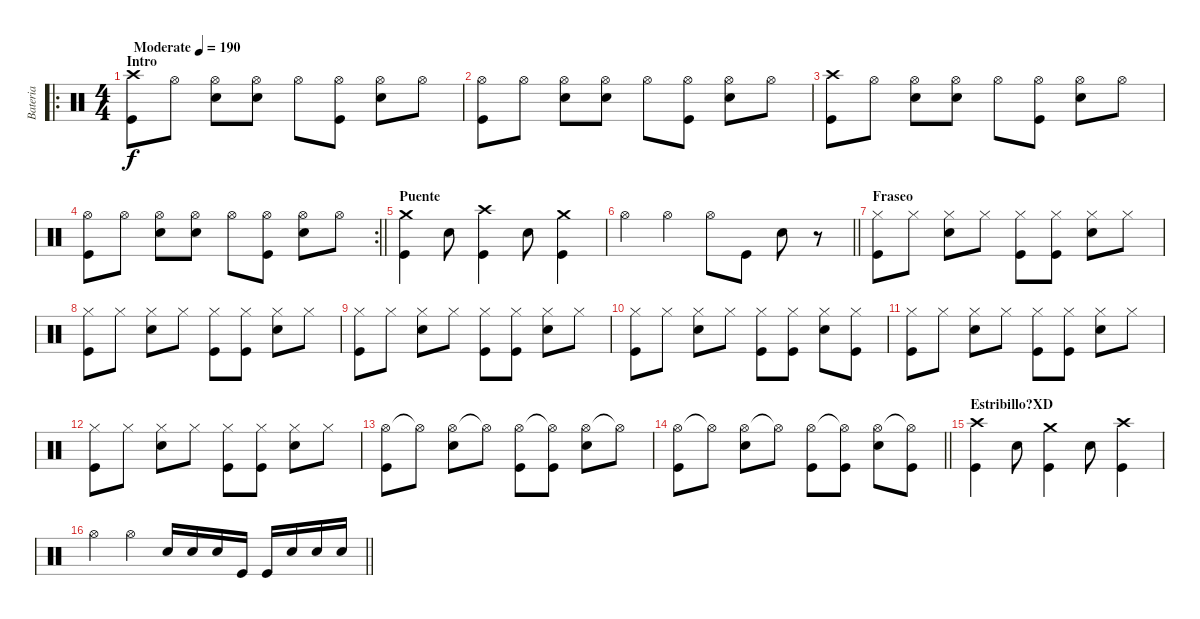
\track ("Bateria" "Bateria") {instrument percussion}
\staff {score}
\articulation defaults
\ro
\ts (4 4)
\section ("" "Intro")
\tempo (190 "Moderate")
\clef neutral
\ks c
("Crash high (hit)" "Kick (hit)").8{dy f} "Hi-Hat (open)".8 ("Hi-Hat (open)" "Snare (hit) 2").8 ("Hi-Hat (open)" "Snare (hit) 2").8 "Hi-Hat (open)".8 ("Hi-Hat (open)" "Kick (hit)").8 ("Hi-Hat (open)" "Snare (hit) 2").8 "Hi-Hat (open)".8 |
("Hi-Hat (open)" "Kick (hit)").8 "Hi-Hat (open)".8 ("Hi-Hat (open)" "Snare (hit) 2").8 ("Hi-Hat (open)" "Snare (hit) 2").8 "Hi-Hat (open)".8 ("Hi-Hat (open)" "Kick (hit)").8 ("Hi-Hat (open)" "Snare (hit) 2").8 "Hi-Hat (open)".8 |
("Crash high (hit)" "Kick (hit)").8 "Hi-Hat (open)".8 ("Hi-Hat (open)" "Snare (hit) 2").8 ("Hi-Hat (open)" "Snare (hit) 2").8 "Hi-Hat (open)".8 ("Hi-Hat (open)" "Kick (hit)").8 ("Hi-Hat (open)" "Snare (hit) 2").8 "Hi-Hat (open)".8 |
\rc 2
\barLineRight lightlight
("Hi-Hat (open)" "Kick (hit)").8 "Hi-Hat (open)".8 ("Hi-Hat (open)" "Snare (hit) 2").8 ("Hi-Hat (open)" "Snare (hit) 2").8 "Hi-Hat (open)".8 ("Hi-Hat (open)" "Kick (hit)").8 ("Hi-Hat (open)" "Snare (hit) 2").8 "Hi-Hat (open)".8 |
\section ("" "Puente")
("Crash medium (hit)" "Kick (hit)").4 "Snare (hit) 2".8 ("Crash high (hit)" "Kick (hit)").4 "Snare (hit) 2".8 ("Crash medium (hit)" "Kick (hit)").4 |
\barLineRight lightlight "Hi-Hat (open)".4 "Hi-Hat (open)".4 "Hi-Hat (open)".8 "Kick (hit)".8 "Snare (hit) 2".8
r.8 |
\section ("" "Fraseo")
("Hi-Hat (closed)" "Kick (hit)").8 "Hi-Hat (closed)".8 ("Hi-Hat (closed)" "Snare (hit) 2").8 "Hi-Hat (closed)".8 ("Hi-Hat (closed)" "Kick (hit)").8 ("Hi-Hat (closed)" "Kick (hit)").8 ("Hi-Hat (closed)" "Snare (hit) 2").8 "Hi-Hat (closed)".8 |
("Hi-Hat (closed)" "Kick (hit)").8 "Hi-Hat (closed)".8 ("Hi-Hat (closed)" "Snare (hit) 2").8 "Hi-Hat (closed)".8 ("Hi-Hat (closed)" "Kick (hit)").8 ("Hi-Hat (closed)" "Kick (hit)").8 ("Hi-Hat (closed)" "Snare (hit) 2").8 "Hi-Hat (closed)".8 |
("Hi-Hat (closed)" "Kick (hit)").8 "Hi-Hat (closed)".8 ("Hi-Hat (closed)" "Snare (hit) 2").8 "Hi-Hat (closed)".8 ("Hi-Hat (closed)" "Kick (hit)").8 ("Hi-Hat (closed)" "Kick (hit)").8 ("Hi-Hat (closed)" "Snare (hit) 2").8 "Hi-Hat (closed)".8 |
("Hi-Hat (closed)" "Kick (hit)").8 "Hi-Hat (closed)".8 ("Hi-Hat (closed)" "Snare (hit) 2").8 "Hi-Hat (closed)".8 ("Hi-Hat (closed)" "Kick (hit)").8 ("Hi-Hat (closed)" "Kick (hit)").8 ("Hi-Hat (closed)" "Snare (hit) 2").8 ("Hi-Hat (closed)" "Kick (hit)").8 |
("Hi-Hat (closed)" "Kick (hit)").8 "Hi-Hat (closed)".8 ("Hi-Hat (closed)" "Snare (hit) 2").8 "Hi-Hat (closed)".8 ("Hi-Hat (closed)" "Kick (hit)").8 ("Hi-Hat (closed)" "Kick (hit)").8 ("Hi-Hat (closed)" "Snare (hit) 2").8 "Hi-Hat (closed)".8 |
("Hi-Hat (closed)" "Kick (hit)").8 "Hi-Hat (closed)".8 ("Hi-Hat (closed)" "Snare (hit) 2").8 "Hi-Hat (closed)".8 ("Hi-Hat (closed)" "Kick (hit)").8 ("Hi-Hat (closed)" "Kick (hit)").8 ("Hi-Hat (closed)" "Snare (hit) 2").8 "Hi-Hat (closed)".8 |
("Hi-Hat (open)" "Kick (hit)").8 "Hi-Hat (open)"{t}.8 ("Hi-Hat (open)" "Snare (hit) 2").8 "Hi-Hat (open)"{t}.8 ("Hi-Hat (open)" "Kick (hit)").8 ("Hi-Hat (open)"{t} "Kick (hit)").8 ("Hi-Hat (open)" "Snare (hit) 2").8 "Hi-Hat (open)"{t}.8 |
\barLineRight lightlight
("Hi-Hat (open)" "Kick (hit)").8 "Hi-Hat (open)"{t}.8 ("Hi-Hat (open)" "Snare (hit) 2").8 "Hi-Hat (open)"{t}.8 ("Hi-Hat (open)" "Kick (hit)").8 ("Hi-Hat (open)"{t} "Kick (hit)").8 ("Hi-Hat (open)" "Snare (hit) 2").8 ("Hi-Hat (open)"{t} "Kick (hit)").8 |
\section ("" "Estribillo?XD")
("Crash high (hit)" "Kick (hit)").4 "Snare (hit) 2".8 ("Crash medium (hit)" "Kick (hit)").4 "Snare (hit) 2".8 ("Crash high (hit)" "Kick (hit)").4 |
\barLineRight lightlight "Hi-Hat (open)".4 "Hi-Hat (open)".4 "Snare (hit) 2".16 "Snare (hit) 2".16 "Snare (hit) 2".16 "Kick (hit)".16 "Kick (hit)".16 "Snare (hit) 2".16 "Snare (hit) 2".16 "Snare (hit) 2".16
